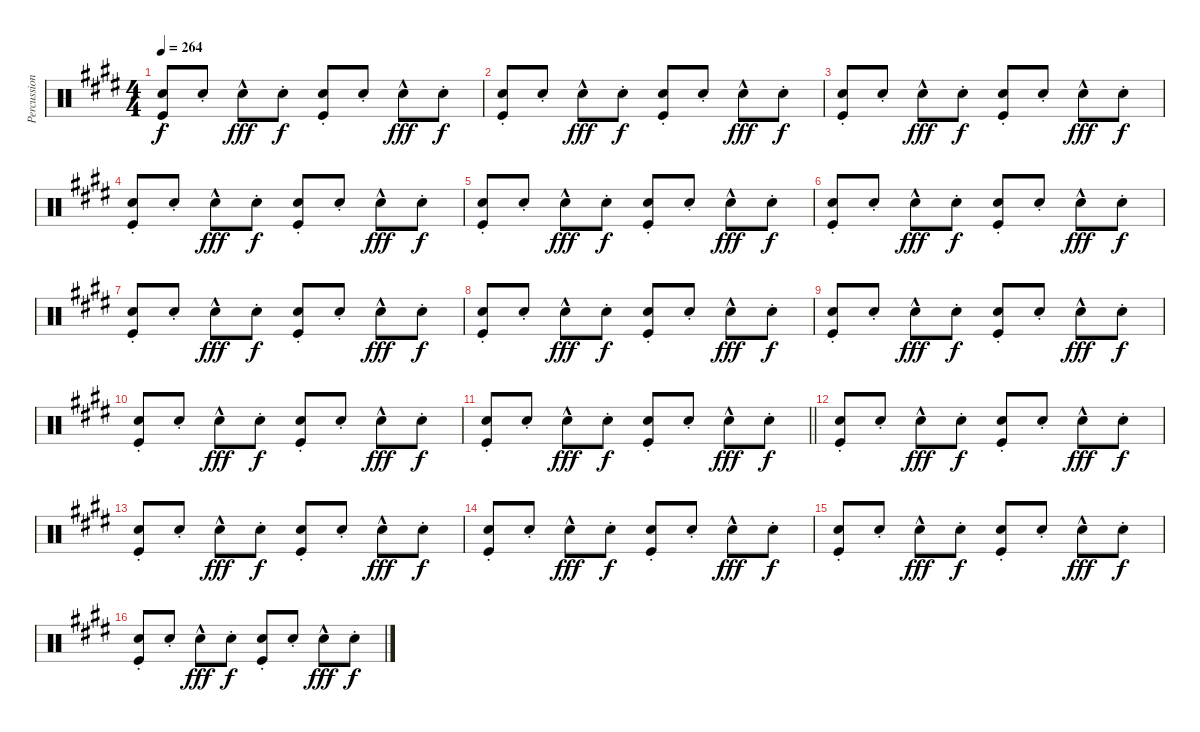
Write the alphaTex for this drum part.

\track ("Percussion" "Percussion") {instrument percussion}
\staff {score}
\articulation defaults
\ts (4 4)
\tempo 264
\clef neutral
\ks e
("Snare (hit) 2"{st} "Kick (hit)").8{dy f} "Snare (hit) 2"{st}.8 "Snare (hit) 2"{hac}.8{dy fff} "Snare (hit) 2"{st}.8{dy f} ("Snare (hit) 2"{st} "Kick (hit)").8 "Snare (hit) 2"{st}.8 "Snare (hit) 2"{hac}.8{dy fff} "Snare (hit) 2"{st}.8{dy f} |
("Snare (hit) 2"{st} "Kick (hit)").8 "Snare (hit) 2"{st}.8 "Snare (hit) 2"{hac}.8{dy fff} "Snare (hit) 2"{st}.8{dy f} ("Snare (hit) 2"{st} "Kick (hit)").8 "Snare (hit) 2"{st}.8 "Snare (hit) 2"{hac}.8{dy fff} "Snare (hit) 2"{st}.8{dy f} |
("Snare (hit) 2"{st} "Kick (hit)").8 "Snare (hit) 2"{st}.8 "Snare (hit) 2"{hac}.8{dy fff} "Snare (hit) 2"{st}.8{dy f} ("Snare (hit) 2"{st} "Kick (hit)").8 "Snare (hit) 2"{st}.8 "Snare (hit) 2"{hac}.8{dy fff} "Snare (hit) 2"{st}.8{dy f} |
("Snare (hit) 2"{st} "Kick (hit)").8 "Snare (hit) 2"{st}.8 "Snare (hit) 2"{hac}.8{dy fff} "Snare (hit) 2"{st}.8{dy f} ("Snare (hit) 2"{st} "Kick (hit)").8 "Snare (hit) 2"{st}.8 "Snare (hit) 2"{hac}.8{dy fff} "Snare (hit) 2"{st}.8{dy f} |
("Snare (hit) 2"{st} "Kick (hit)").8 "Snare (hit) 2"{st}.8 "Snare (hit) 2"{hac}.8{dy fff} "Snare (hit) 2"{st}.8{dy f} ("Snare (hit) 2"{st} "Kick (hit)").8 "Snare (hit) 2"{st}.8 "Snare (hit) 2"{hac}.8{dy fff} "Snare (hit) 2"{st}.8{dy f} |
("Snare (hit) 2"{st} "Kick (hit)").8 "Snare (hit) 2"{st}.8 "Snare (hit) 2"{hac}.8{dy fff} "Snare (hit) 2"{st}.8{dy f} ("Snare (hit) 2"{st} "Kick (hit)").8 "Snare (hit) 2"{st}.8 "Snare (hit) 2"{hac}.8{dy fff} "Snare (hit) 2"{st}.8{dy f} |
("Snare (hit) 2"{st} "Kick (hit)").8 "Snare (hit) 2"{st}.8 "Snare (hit) 2"{hac}.8{dy fff} "Snare (hit) 2"{st}.8{dy f} ("Snare (hit) 2"{st} "Kick (hit)").8 "Snare (hit) 2"{st}.8 "Snare (hit) 2"{hac}.8{dy fff} "Snare (hit) 2"{st}.8{dy f} |
("Snare (hit) 2"{st} "Kick (hit)").8 "Snare (hit) 2"{st}.8 "Snare (hit) 2"{hac}.8{dy fff} "Snare (hit) 2"{st}.8{dy f} ("Snare (hit) 2"{st} "Kick (hit)").8 "Snare (hit) 2"{st}.8 "Snare (hit) 2"{hac}.8{dy fff} "Snare (hit) 2"{st}.8{dy f} |
("Snare (hit) 2"{st} "Kick (hit)").8 "Snare (hit) 2"{st}.8 "Snare (hit) 2"{hac}.8{dy fff} "Snare (hit) 2"{st}.8{dy f} ("Snare (hit) 2"{st} "Kick (hit)").8 "Snare (hit) 2"{st}.8 "Snare (hit) 2"{hac}.8{dy fff} "Snare (hit) 2"{st}.8{dy f} |
("Snare (hit) 2"{st} "Kick (hit)").8 "Snare (hit) 2"{st}.8 "Snare (hit) 2"{hac}.8{dy fff} "Snare (hit) 2"{st}.8{dy f} ("Snare (hit) 2"{st} "Kick (hit)").8 "Snare (hit) 2"{st}.8 "Snare (hit) 2"{hac}.8{dy fff} "Snare (hit) 2"{st}.8{dy f} |
\barLineRight lightlight
("Snare (hit) 2"{st} "Kick (hit)").8 "Snare (hit) 2"{st}.8 "Snare (hit) 2"{hac}.8{dy fff} "Snare (hit) 2"{st}.8{dy f} ("Snare (hit) 2"{st} "Kick (hit)").8 "Snare (hit) 2"{st}.8 "Snare (hit) 2"{hac}.8{dy fff} "Snare (hit) 2"{st}.8{dy f} |
("Snare (hit) 2"{st} "Kick (hit)").8 "Snare (hit) 2"{st}.8 "Snare (hit) 2"{hac}.8{dy fff} "Snare (hit) 2"{st}.8{dy f} ("Snare (hit) 2"{st} "Kick (hit)").8 "Snare (hit) 2"{st}.8 "Snare (hit) 2"{hac}.8{dy fff} "Snare (hit) 2"{st}.8{dy f} |
("Snare (hit) 2"{st} "Kick (hit)").8 "Snare (hit) 2"{st}.8 "Snare (hit) 2"{hac}.8{dy fff} "Snare (hit) 2"{st}.8{dy f} ("Snare (hit) 2"{st} "Kick (hit)").8 "Snare (hit) 2"{st}.8 "Snare (hit) 2"{hac}.8{dy fff} "Snare (hit) 2"{st}.8{dy f} |
("Snare (hit) 2"{st} "Kick (hit)").8 "Snare (hit) 2"{st}.8 "Snare (hit) 2"{hac}.8{dy fff} "Snare (hit) 2"{st}.8{dy f} ("Snare (hit) 2"{st} "Kick (hit)").8 "Snare (hit) 2"{st}.8 "Snare (hit) 2"{hac}.8{dy fff} "Snare (hit) 2"{st}.8{dy f} |
("Snare (hit) 2"{st} "Kick (hit)").8 "Snare (hit) 2"{st}.8 "Snare (hit) 2"{hac}.8{dy fff} "Snare (hit) 2"{st}.8{dy f} ("Snare (hit) 2"{st} "Kick (hit)").8 "Snare (hit) 2"{st}.8 "Snare (hit) 2"{hac}.8{dy fff} "Snare (hit) 2"{st}.8{dy f} |
("Snare (hit) 2"{st} "Kick (hit)").8 "Snare (hit) 2"{st}.8 "Snare (hit) 2"{hac}.8{dy fff} "Snare (hit) 2"{st}.8{dy f} ("Snare (hit) 2"{st} "Kick (hit)").8 "Snare (hit) 2"{st}.8 "Snare (hit) 2"{hac}.8{dy fff} "Snare (hit) 2"{st}.8{dy f}
